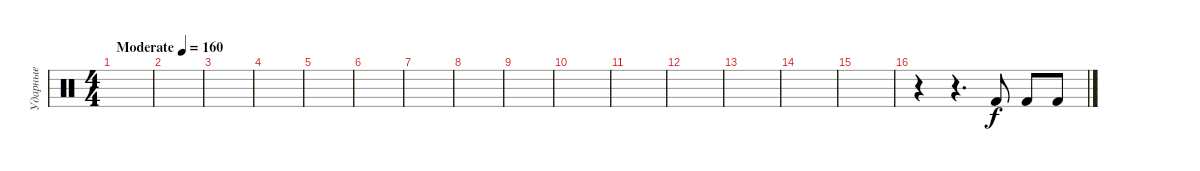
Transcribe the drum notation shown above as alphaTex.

\track ("Ударные" "Ударные") {instrument percussion}
\staff {score}
\articulation defaults
\ts (4 4)
\tempo (160 "Moderate")
\clef neutral
\ks c
|
|
|
|
|
|
|
|
|
|
|
|
|
|
|
r.4 r.4{d} "Kick (hit) 2".8 "Kick (hit) 2".8 "Kick (hit) 2".8
